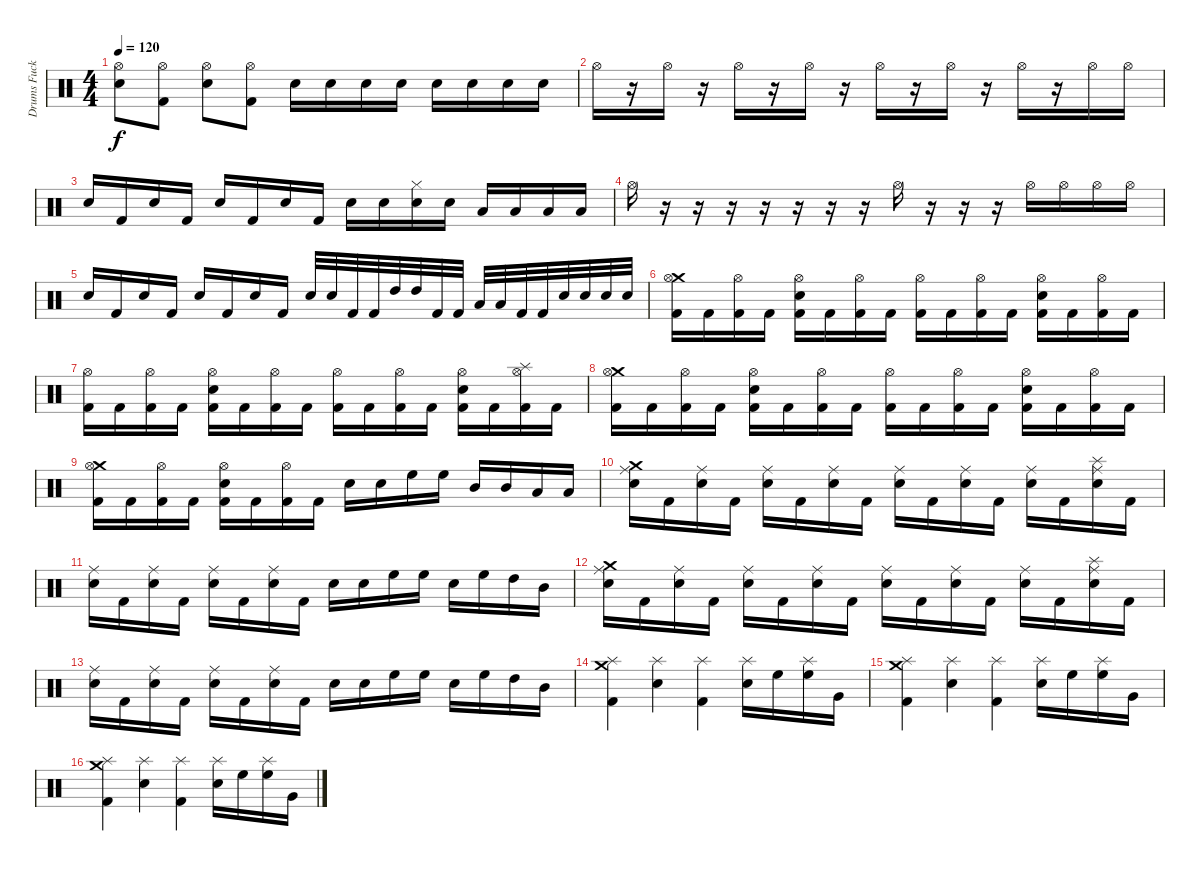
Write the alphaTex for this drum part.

\track ("Drums Fucker" "Drums Fuck") {instrument percussion}
\staff {score}
\articulation defaults
\ts (4 4)
\tempo 120
\clef neutral
\ks c
("Snare (hit) 2" "Hi-Hat (open)").8{dy f} ("Kick (hit) 2" "Hi-Hat (open)").8 ("Snare (hit) 2" "Hi-Hat (open)").8 ("Kick (hit) 2" "Hi-Hat (open)").8 "Snare (hit) 2".16 "Snare (hit) 2".16 "Snare (hit) 2".16 "Snare (hit) 2".16 "Snare (hit) 2".16 "Snare (hit) 2".16 "Snare (hit) 2".16 "Snare (hit) 2".16 |
"Hi-Hat (open)".16 r.16 "Hi-Hat (open)".16 r.16 "Hi-Hat (open)".16 r.16 "Hi-Hat (open)".16 r.16 "Hi-Hat (open)".16 r.16 "Hi-Hat (open)".16 r.16 "Hi-Hat (open)".16 r.16 "Hi-Hat (open)".16 "Hi-Hat (open)".16 |
"Snare (hit) 2".16 "Kick (hit) 2".16 "Snare (hit) 2".16 "Kick (hit) 2".16 "Snare (hit) 2".16 "Kick (hit) 2".16 "Snare (hit) 2".16 "Kick (hit) 2".16 "Snare (hit) 2".16 "Snare (hit) 2".16 ("Hi-Hat (closed)" "Snare (hit) 2").16 "Snare (hit) 2".16 "Low Tom (hit)".16 "Low Tom (hit)".16 "Low Floor Tom (hit)".16 "Low Floor Tom (hit)".16 |
"Hi-Hat (open)".16 r.16 r.16 r.16 r.16 r.16 r.16 r.16 "Hi-Hat (open)".16 r.16 r.16 r.16 "Hi-Hat (open)".16 "Hi-Hat (open)".16 "Hi-Hat (open)".16 "Hi-Hat (open)".16 |
"Snare (hit) 2".16 "Kick (hit) 2".16 "Snare (hit) 2".16 "Kick (hit) 2".16 "Snare (hit) 2".16 "Kick (hit) 2".16 "Snare (hit) 2".16 "Kick (hit) 2".16 "Snare (hit) 2".32 "Snare (hit) 2".32 "Kick (hit) 2".32 "Kick (hit) 2".32 "High Tom (hit)".32 "High Tom (hit)".32 "Kick (hit) 2".32 "Kick (hit) 2".32 "Low Tom (hit)".32 "Low Tom (hit)".32 "Kick (hit) 2".32 "Kick (hit) 2".32 "Snare (hit) 2".32 "Snare (hit) 2".32 "Snare (hit) 2".32 "Snare (hit) 2".32 |
("Crash medium (hit)" "Kick (hit) 2" "Hi-Hat (open)").16 "Kick (hit) 2".16 ("Kick (hit) 2" "Hi-Hat (open)").16 "Kick (hit) 2".16 ("Snare (hit) 2" "Kick (hit) 2" "Hi-Hat (open)").16 "Kick (hit) 2".16 ("Kick (hit) 2" "Hi-Hat (open)").16 "Kick (hit) 2".16 ("Kick (hit) 2" "Hi-Hat (open)").16 "Kick (hit) 2".16 ("Kick (hit) 2" "Hi-Hat (open)").16 "Kick (hit) 2".16 ("Snare (hit) 2" "Kick (hit) 2" "Hi-Hat (open)").16 "Kick (hit) 2".16 ("Kick (hit) 2" "Hi-Hat (open)").16 "Kick (hit) 2".16 |
("Kick (hit) 2" "Hi-Hat (open)").16 "Kick (hit) 2".16 ("Kick (hit) 2" "Hi-Hat (open)").16 "Kick (hit) 2".16 ("Snare (hit) 2" "Kick (hit) 2" "Hi-Hat (open)").16 "Kick (hit) 2".16 ("Kick (hit) 2" "Hi-Hat (open)").16 "Kick (hit) 2".16 ("Kick (hit) 2" "Hi-Hat (open)").16 "Kick (hit) 2".16 ("Kick (hit) 2" "Hi-Hat (open)").16 "Kick (hit) 2".16 ("Snare (hit) 2" "Kick (hit) 2" "Hi-Hat (open)").16 "Kick (hit) 2".16 ("Splash (hit)" "Kick (hit) 2" "Hi-Hat (open)").16 "Kick (hit) 2".16 |
("Crash medium (hit)" "Kick (hit) 2" "Hi-Hat (open)").16 "Kick (hit) 2".16 ("Kick (hit) 2" "Hi-Hat (open)").16 "Kick (hit) 2".16 ("Snare (hit) 2" "Kick (hit) 2" "Hi-Hat (open)").16 "Kick (hit) 2".16 ("Kick (hit) 2" "Hi-Hat (open)").16 "Kick (hit) 2".16 ("Kick (hit) 2" "Hi-Hat (open)").16 "Kick (hit) 2".16 ("Kick (hit) 2" "Hi-Hat (open)").16 "Kick (hit) 2".16 ("Snare (hit) 2" "Kick (hit) 2" "Hi-Hat (open)").16 "Kick (hit) 2".16 ("Kick (hit) 2" "Hi-Hat (open)").16 "Kick (hit) 2".16 |
("Crash medium (hit)" "Kick (hit) 2" "Hi-Hat (open)").16 "Kick (hit) 2".16 ("Kick (hit) 2" "Hi-Hat (open)").16 "Kick (hit) 2".16 ("Snare (hit) 2" "Kick (hit) 2" "Hi-Hat (open)").16 "Kick (hit) 2".16 ("Kick (hit) 2" "Hi-Hat (open)").16 "Kick (hit) 2".16 "Snare (hit) 2".16 "Snare (hit) 2".16 "High Floor Tom (hit)".16 "High Floor Tom (hit)".16 "Mid Tom (hit)".16 "Mid Tom (hit)".16 "Low Tom (hit)".16 "Low Tom (hit)".16 |
("Crash medium (hit)" "Snare (hit) 2" "Ride (middle)").16 "Kick (hit) 2".16 ("Snare (hit) 2" "Ride (middle)").16 "Kick (hit) 2".16 ("Snare (hit) 2" "Ride (middle)").16 "Kick (hit) 2".16 ("Snare (hit) 2" "Ride (middle)").16 "Kick (hit) 2".16 ("Snare (hit) 2" "Ride (middle)").16 "Kick (hit) 2".16 ("Snare (hit) 2" "Ride (middle)").16 "Kick (hit) 2".16 ("Snare (hit) 2" "Ride (middle)").16 "Kick (hit) 2".16 ("Splash (hit)" "Snare (hit) 2" "Ride (middle)").16 "Kick (hit) 2".16 |
("Snare (hit) 2" "Ride (middle)").16 "Kick (hit) 2".16 ("Snare (hit) 2" "Ride (middle)").16 "Kick (hit) 2".16 ("Snare (hit) 2" "Ride (middle)").16 "Kick (hit) 2".16 ("Snare (hit) 2" "Ride (middle)").16 "Kick (hit) 2".16 "Snare (hit) 2".16 "Snare (hit) 2".16 "High Floor Tom (hit)".16 "High Floor Tom (hit)".16 "Snare (hit) 2".16 "High Floor Tom (hit)".16 "High Tom (hit)".16 "Mid Tom (hit)".16 |
("Crash medium (hit)" "Snare (hit) 2" "Ride (middle)").16 "Kick (hit) 2".16 ("Snare (hit) 2" "Ride (middle)").16 "Kick (hit) 2".16 ("Snare (hit) 2" "Ride (middle)").16 "Kick (hit) 2".16 ("Snare (hit) 2" "Ride (middle)").16 "Kick (hit) 2".16 ("Snare (hit) 2" "Ride (middle)").16 "Kick (hit) 2".16 ("Snare (hit) 2" "Ride (middle)").16 "Kick (hit) 2".16 ("Snare (hit) 2" "Ride (middle)").16 "Kick (hit) 2".16 ("Splash (hit)" "Snare (hit) 2" "Ride (middle)").16 "Kick (hit) 2".16 |
("Snare (hit) 2" "Ride (middle)").16 "Kick (hit) 2".16 ("Snare (hit) 2" "Ride (middle)").16 "Kick (hit) 2".16 ("Snare (hit) 2" "Ride (middle)").16 "Kick (hit) 2".16 ("Snare (hit) 2" "Ride (middle)").16 "Kick (hit) 2".16 "Snare (hit) 2".16 "Snare (hit) 2".16 "High Floor Tom (hit)".16 "High Floor Tom (hit)".16 "Snare (hit) 2".16 "High Floor Tom (hit)".16 "High Tom (hit)".16 "Mid Tom (hit)".16 |
("Crash medium (hit)" "Splash (hit)" "Kick (hit) 2").4 ("Splash (hit)" "Snare (hit) 2").4 ("Splash (hit)" "Kick (hit) 2").4 ("Splash (hit)" "Snare (hit) 2").16 "High Floor Tom (hit)".16 ("Splash (hit)" "High Floor Tom (hit)").16 "Very Low Tom (hit)".16 |
("Crash medium (hit)" "Splash (hit)" "Kick (hit) 2").4 ("Splash (hit)" "Snare (hit) 2").4 ("Splash (hit)" "Kick (hit) 2").4 ("Splash (hit)" "Snare (hit) 2").16 "High Floor Tom (hit)".16 ("Splash (hit)" "High Floor Tom (hit)").16 "Very Low Tom (hit)".16 |
("Crash medium (hit)" "Splash (hit)" "Kick (hit) 2").4 ("Splash (hit)" "Snare (hit) 2").4 ("Splash (hit)" "Kick (hit) 2").4 ("Splash (hit)" "Snare (hit) 2").16 "High Floor Tom (hit)".16 ("Splash (hit)" "High Floor Tom (hit)").16 "Very Low Tom (hit)".16
